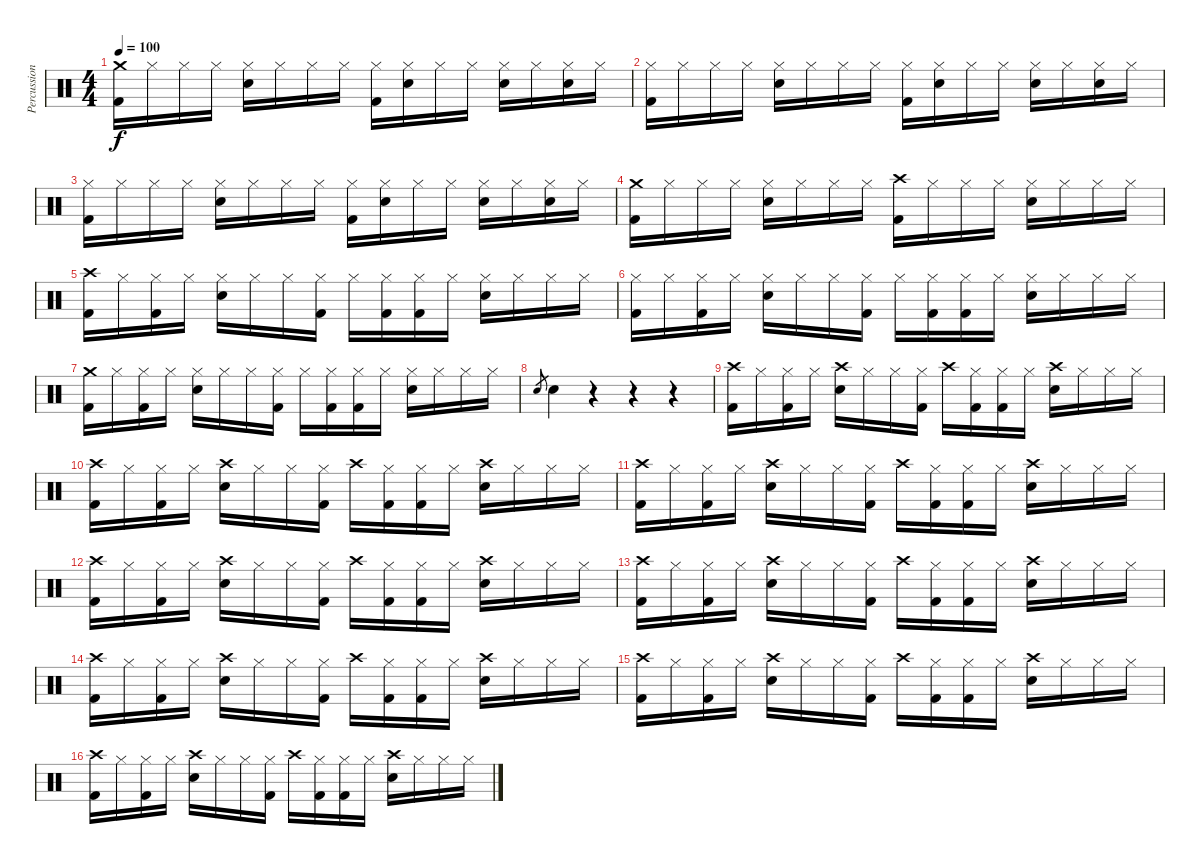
\track ("Percussion" "Percussion") {instrument percussion}
\staff {score}
\articulation defaults
\ts (4 4)
\tempo 100
\clef neutral
\ks c
("Crash medium (hit)" "Kick (hit) 2").16{dy f} "Hi-Hat (closed)".16 "Hi-Hat (closed)".16 "Hi-Hat (closed)".16 ("Hi-Hat (closed)" "Snare (hit) 2").16 "Hi-Hat (closed)".16 "Hi-Hat (closed)".16 "Hi-Hat (closed)".16 ("Hi-Hat (closed)" "Kick (hit) 2").16 ("Hi-Hat (closed)" "Snare (hit) 2").16 "Hi-Hat (closed)".16 "Hi-Hat (closed)".16 ("Hi-Hat (closed)" "Snare (hit) 2").16 "Hi-Hat (closed)".16 ("Hi-Hat (closed)" "Snare (hit) 2").16 "Hi-Hat (closed)".16 |
("Hi-Hat (closed)" "Kick (hit) 2").16 "Hi-Hat (closed)".16 "Hi-Hat (closed)".16 "Hi-Hat (closed)".16 ("Hi-Hat (closed)" "Snare (hit) 2").16 "Hi-Hat (closed)".16 "Hi-Hat (closed)".16 "Hi-Hat (closed)".16 ("Hi-Hat (closed)" "Kick (hit) 2").16 ("Hi-Hat (closed)" "Snare (hit) 2").16 "Hi-Hat (closed)".16 "Hi-Hat (closed)".16 ("Hi-Hat (closed)" "Snare (hit) 2").16 "Hi-Hat (closed)".16 ("Hi-Hat (closed)" "Snare (hit) 2").16 "Hi-Hat (closed)".16 |
("Hi-Hat (closed)" "Kick (hit) 2").16 "Hi-Hat (closed)".16 "Hi-Hat (closed)".16 "Hi-Hat (closed)".16 ("Hi-Hat (closed)" "Snare (hit) 2").16 "Hi-Hat (closed)".16 "Hi-Hat (closed)".16 "Hi-Hat (closed)".16 ("Hi-Hat (closed)" "Kick (hit) 2").16 ("Hi-Hat (closed)" "Snare (hit) 2").16 "Hi-Hat (closed)".16 "Hi-Hat (closed)".16 ("Hi-Hat (closed)" "Snare (hit) 2").16 "Hi-Hat (closed)".16 ("Hi-Hat (closed)" "Snare (hit) 2").16 "Hi-Hat (closed)".16 |
("Crash medium (hit)" "Kick (hit) 2").16 "Hi-Hat (closed)".16 "Hi-Hat (closed)".16 "Hi-Hat (closed)".16 ("Hi-Hat (closed)" "Snare (hit) 2").16 "Hi-Hat (closed)".16 "Hi-Hat (closed)".16 "Hi-Hat (closed)".16 ("Crash high (hit)" "Kick (hit) 2").16 "Hi-Hat (closed)".16 "Hi-Hat (closed)".16 "Hi-Hat (closed)".16 ("Hi-Hat (closed)" "Snare (hit) 2").16 "Hi-Hat (closed)".16 "Hi-Hat (closed)".16 "Hi-Hat (closed)".16 |
("Crash high (hit)" "Kick (hit) 2").16 "Hi-Hat (closed)".16 ("Hi-Hat (closed)" "Kick (hit) 2").16 "Hi-Hat (closed)".16 ("Hi-Hat (closed)" "Snare (hit) 2").16 "Hi-Hat (closed)".16 "Hi-Hat (closed)".16 ("Hi-Hat (closed)" "Kick (hit) 2").16 "Hi-Hat (closed)".16 ("Hi-Hat (closed)" "Kick (hit) 2").16 ("Hi-Hat (closed)" "Kick (hit) 2").16 "Hi-Hat (closed)".16 ("Hi-Hat (closed)" "Snare (hit) 2").16 "Hi-Hat (closed)".16 "Hi-Hat (closed)".16 "Hi-Hat (closed)".16 |
("Hi-Hat (closed)" "Kick (hit) 2").16 "Hi-Hat (closed)".16 ("Hi-Hat (closed)" "Kick (hit) 2").16 "Hi-Hat (closed)".16 ("Hi-Hat (closed)" "Snare (hit) 2").16 "Hi-Hat (closed)".16 "Hi-Hat (closed)".16 ("Hi-Hat (closed)" "Kick (hit) 2").16 "Hi-Hat (closed)".16 ("Hi-Hat (closed)" "Kick (hit) 2").16 ("Hi-Hat (closed)" "Kick (hit) 2").16 "Hi-Hat (closed)".16 ("Hi-Hat (closed)" "Snare (hit) 2").16 "Hi-Hat (closed)".16 "Hi-Hat (closed)".16 "Hi-Hat (closed)".16 |
("Crash medium (hit)" "Kick (hit) 2").16 "Hi-Hat (closed)".16 ("Hi-Hat (closed)" "Kick (hit) 2").16 "Hi-Hat (closed)".16 ("Hi-Hat (closed)" "Snare (hit) 2").16 "Hi-Hat (closed)".16 "Hi-Hat (closed)".16 ("Hi-Hat (closed)" "Kick (hit) 2").16 "Hi-Hat (closed)".16 ("Hi-Hat (closed)" "Kick (hit) 2").16 ("Hi-Hat (closed)" "Kick (hit) 2").16 "Hi-Hat (closed)".16 ("Hi-Hat (closed)" "Snare (hit) 2").16 "Hi-Hat (closed)".16 "Hi-Hat (closed)".16 "Hi-Hat (closed)".16 |
"Snare (hit) 2".8{gr} "Snare (hit) 2".4 r.4 r.4 r.4 |
("Crash high (hit)" "Kick (hit) 2").16 "Hi-Hat (closed)".16 ("Hi-Hat (closed)" "Kick (hit) 2").16 "Hi-Hat (closed)".16 ("Crash high (hit)" "Snare (hit) 2").16 "Hi-Hat (closed)".16 "Hi-Hat (closed)".16 ("Hi-Hat (closed)" "Kick (hit) 2").16 "Crash high (hit)".16 ("Hi-Hat (closed)" "Kick (hit) 2").16 ("Hi-Hat (closed)" "Kick (hit) 2").16 "Hi-Hat (closed)".16 ("Crash high (hit)" "Snare (hit) 2").16 "Hi-Hat (closed)".16 "Hi-Hat (closed)".16 "Hi-Hat (closed)".16 |
("Crash high (hit)" "Kick (hit) 2").16 "Hi-Hat (closed)".16 ("Hi-Hat (closed)" "Kick (hit) 2").16 "Hi-Hat (closed)".16 ("Crash high (hit)" "Snare (hit) 2").16 "Hi-Hat (closed)".16 "Hi-Hat (closed)".16 ("Hi-Hat (closed)" "Kick (hit) 2").16 "Crash high (hit)".16 ("Hi-Hat (closed)" "Kick (hit) 2").16 ("Hi-Hat (closed)" "Kick (hit) 2").16 "Hi-Hat (closed)".16 ("Crash high (hit)" "Snare (hit) 2").16 "Hi-Hat (closed)".16 "Hi-Hat (closed)".16 "Hi-Hat (closed)".16 |
("Crash high (hit)" "Kick (hit) 2").16 "Hi-Hat (closed)".16 ("Hi-Hat (closed)" "Kick (hit) 2").16 "Hi-Hat (closed)".16 ("Crash high (hit)" "Snare (hit) 2").16 "Hi-Hat (closed)".16 "Hi-Hat (closed)".16 ("Hi-Hat (closed)" "Kick (hit) 2").16 "Crash high (hit)".16 ("Hi-Hat (closed)" "Kick (hit) 2").16 ("Hi-Hat (closed)" "Kick (hit) 2").16 "Hi-Hat (closed)".16 ("Crash high (hit)" "Snare (hit) 2").16 "Hi-Hat (closed)".16 "Hi-Hat (closed)".16 "Hi-Hat (closed)".16 |
("Crash high (hit)" "Kick (hit) 2").16 "Hi-Hat (closed)".16 ("Hi-Hat (closed)" "Kick (hit) 2").16 "Hi-Hat (closed)".16 ("Crash high (hit)" "Snare (hit) 2").16 "Hi-Hat (closed)".16 "Hi-Hat (closed)".16 ("Hi-Hat (closed)" "Kick (hit) 2").16 "Crash high (hit)".16 ("Hi-Hat (closed)" "Kick (hit) 2").16 ("Hi-Hat (closed)" "Kick (hit) 2").16 "Hi-Hat (closed)".16 ("Crash high (hit)" "Snare (hit) 2").16 "Hi-Hat (closed)".16 "Hi-Hat (closed)".16 "Hi-Hat (closed)".16 |
("Crash high (hit)" "Kick (hit) 2").16 "Hi-Hat (closed)".16 ("Hi-Hat (closed)" "Kick (hit) 2").16 "Hi-Hat (closed)".16 ("Crash high (hit)" "Snare (hit) 2").16 "Hi-Hat (closed)".16 "Hi-Hat (closed)".16 ("Hi-Hat (closed)" "Kick (hit) 2").16 "Crash high (hit)".16 ("Hi-Hat (closed)" "Kick (hit) 2").16 ("Hi-Hat (closed)" "Kick (hit) 2").16 "Hi-Hat (closed)".16 ("Crash high (hit)" "Snare (hit) 2").16 "Hi-Hat (closed)".16 "Hi-Hat (closed)".16 "Hi-Hat (closed)".16 |
("Crash high (hit)" "Kick (hit) 2").16 "Hi-Hat (closed)".16 ("Hi-Hat (closed)" "Kick (hit) 2").16 "Hi-Hat (closed)".16 ("Crash high (hit)" "Snare (hit) 2").16 "Hi-Hat (closed)".16 "Hi-Hat (closed)".16 ("Hi-Hat (closed)" "Kick (hit) 2").16 "Crash high (hit)".16 ("Hi-Hat (closed)" "Kick (hit) 2").16 ("Hi-Hat (closed)" "Kick (hit) 2").16 "Hi-Hat (closed)".16 ("Crash high (hit)" "Snare (hit) 2").16 "Hi-Hat (closed)".16 "Hi-Hat (closed)".16 "Hi-Hat (closed)".16 |
("Crash high (hit)" "Kick (hit) 2").16 "Hi-Hat (closed)".16 ("Hi-Hat (closed)" "Kick (hit) 2").16 "Hi-Hat (closed)".16 ("Crash high (hit)" "Snare (hit) 2").16 "Hi-Hat (closed)".16 "Hi-Hat (closed)".16 ("Hi-Hat (closed)" "Kick (hit) 2").16 "Crash high (hit)".16 ("Hi-Hat (closed)" "Kick (hit) 2").16 ("Hi-Hat (closed)" "Kick (hit) 2").16 "Hi-Hat (closed)".16 ("Crash high (hit)" "Snare (hit) 2").16 "Hi-Hat (closed)".16 "Hi-Hat (closed)".16 "Hi-Hat (closed)".16 |
("Crash high (hit)" "Kick (hit) 2").16 "Hi-Hat (closed)".16 ("Hi-Hat (closed)" "Kick (hit) 2").16 "Hi-Hat (closed)".16 ("Crash high (hit)" "Snare (hit) 2").16 "Hi-Hat (closed)".16 "Hi-Hat (closed)".16 ("Hi-Hat (closed)" "Kick (hit) 2").16 "Crash high (hit)".16 ("Hi-Hat (closed)" "Kick (hit) 2").16 ("Hi-Hat (closed)" "Kick (hit) 2").16 "Hi-Hat (closed)".16 ("Crash high (hit)" "Snare (hit) 2").16 "Hi-Hat (closed)".16 "Hi-Hat (closed)".16 "Hi-Hat (closed)".16
